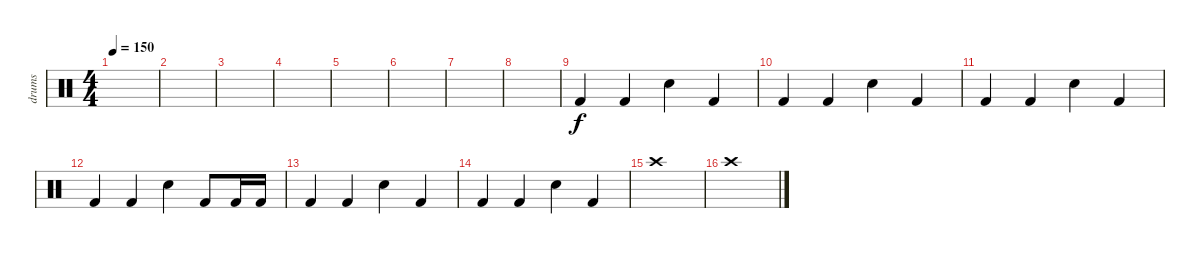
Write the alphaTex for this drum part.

\track ("drums" "drums") {instrument percussion}
\staff {score}
\articulation defaults
\ts (4 4)
\tempo 150
\clef neutral
\ks c
|
|
|
|
|
|
|
|
"Kick (hit) 2".4{dy f} "Kick (hit) 2".4 "Electric Snare (hit)".4 "Kick (hit) 2".4 |
"Kick (hit) 2".4 "Kick (hit) 2".4 "Electric Snare (hit)".4 "Kick (hit) 2".4 |
"Kick (hit) 2".4 "Kick (hit) 2".4 "Electric Snare (hit)".4 "Kick (hit) 2".4 |
"Kick (hit) 2".4 "Kick (hit) 2".4 "Electric Snare (hit)".4 "Kick (hit) 2".8 "Kick (hit) 2".16 "Kick (hit) 2".16 |
"Kick (hit) 2".4 "Kick (hit) 2".4 "Electric Snare (hit)".4 "Kick (hit) 2".4 |
"Kick (hit) 2".4 "Kick (hit) 2".4 "Electric Snare (hit)".4 "Kick (hit) 2".4 |
"Crash high (hit)".1 |
"Crash high (hit)".1
